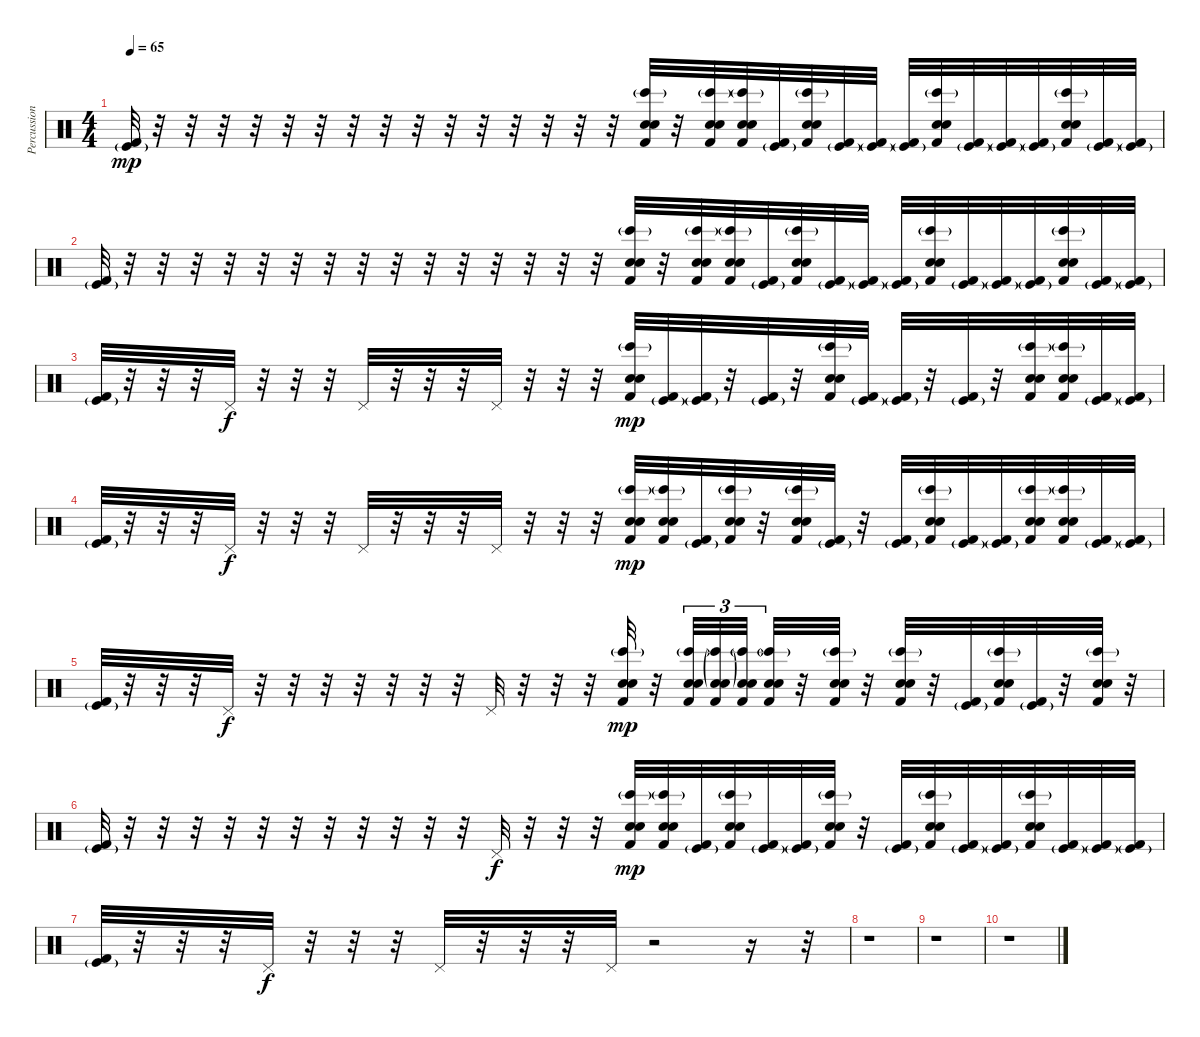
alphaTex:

\track ("Percussion 3" "Percussion") {instrument percussion}
\staff {score}
\articulation defaults
\ts (4 4)
\tempo 65
\clef neutral
\ks c
("Kick (hit)"{g} "Kick (hit) 2").32{dy mp} r.32 r.32 r.32 r.32 r.32 r.32 r.32 r.32 r.32 r.32 r.32 r.32 r.32 r.32 r.32 ("Bongo High (hit)"{g} "Snare (hit) 2" "Electric Snare (hit)" "Kick (hit) 2").32 r.32 ("Bongo High (hit)"{g} "Snare (hit) 2" "Electric Snare (hit)" "Kick (hit) 2").32 ("Bongo High (hit)"{g} "Snare (hit) 2" "Electric Snare (hit)" "Kick (hit) 2").32 ("Kick (hit)"{g} "Kick (hit) 2").32 ("Bongo High (hit)"{g} "Snare (hit) 2" "Electric Snare (hit)" "Kick (hit) 2").32 ("Kick (hit)"{g} "Kick (hit) 2").32 ("Kick (hit)"{g} "Kick (hit) 2").32 ("Kick (hit)"{g} "Kick (hit) 2").32 ("Bongo High (hit)"{g} "Snare (hit) 2" "Electric Snare (hit)" "Kick (hit) 2").32 ("Kick (hit)"{g} "Kick (hit) 2").32 ("Kick (hit)"{g} "Kick (hit) 2").32 ("Kick (hit)"{g} "Kick (hit) 2").32 ("Bongo High (hit)"{g} "Snare (hit) 2" "Electric Snare (hit)" "Kick (hit) 2").32 ("Kick (hit)"{g} "Kick (hit) 2").32 ("Kick (hit)"{g} "Kick (hit) 2").32 |
("Kick (hit)"{g} "Kick (hit) 2").32 r.32 r.32 r.32 r.32 r.32 r.32 r.32 r.32 r.32 r.32 r.32 r.32 r.32 r.32 r.32 ("Bongo High (hit)"{g} "Snare (hit) 2" "Electric Snare (hit)" "Kick (hit) 2").32 r.32 ("Bongo High (hit)"{g} "Snare (hit) 2" "Electric Snare (hit)" "Kick (hit) 2").32 ("Bongo High (hit)"{g} "Snare (hit) 2" "Electric Snare (hit)" "Kick (hit) 2").32 ("Kick (hit)"{g} "Kick (hit) 2").32 ("Bongo High (hit)"{g} "Snare (hit) 2" "Electric Snare (hit)" "Kick (hit) 2").32 ("Kick (hit)"{g} "Kick (hit) 2").32 ("Kick (hit)"{g} "Kick (hit) 2").32 ("Kick (hit)"{g} "Kick (hit) 2").32 ("Bongo High (hit)"{g} "Snare (hit) 2" "Electric Snare (hit)" "Kick (hit) 2").32 ("Kick (hit)"{g} "Kick (hit) 2").32 ("Kick (hit)"{g} "Kick (hit) 2").32 ("Kick (hit)"{g} "Kick (hit) 2").32 ("Bongo High (hit)"{g} "Snare (hit) 2" "Electric Snare (hit)" "Kick (hit) 2").32 ("Kick (hit)"{g} "Kick (hit) 2").32 ("Kick (hit)"{g} "Kick (hit) 2").32 |
\section ("" "")
("Kick (hit)"{g} "Kick (hit) 2").32 r.32 r.32 r.32 "Pedal Hi-Hat (hit)".32{dy f} r.32 r.32 r.32 "Pedal Hi-Hat (hit)".32 r.32 r.32 r.32 "Pedal Hi-Hat (hit)".32 r.32 r.32 r.32 ("Bongo High (hit)"{g} "Snare (hit) 2" "Electric Snare (hit)" "Kick (hit) 2").32{dy mp} ("Kick (hit)"{g} "Kick (hit) 2").32 ("Kick (hit)"{g} "Kick (hit) 2").32 r.32 ("Kick (hit)"{g} "Kick (hit) 2").32 r.32 ("Bongo High (hit)"{g} "Snare (hit) 2" "Electric Snare (hit)" "Kick (hit) 2").32 ("Kick (hit)"{g} "Kick (hit) 2").32 ("Kick (hit)"{g} "Kick (hit) 2").32 r.32 ("Kick (hit)"{g} "Kick (hit) 2").32 r.32 ("Bongo High (hit)"{g} "Snare (hit) 2" "Electric Snare (hit)" "Kick (hit) 2").32 ("Bongo High (hit)"{g} "Snare (hit) 2" "Electric Snare (hit)" "Kick (hit) 2").32 ("Kick (hit)"{g} "Kick (hit) 2").32 ("Kick (hit)"{g} "Kick (hit) 2").32 |
("Kick (hit)"{g} "Kick (hit) 2").32 r.32 r.32 r.32 "Pedal Hi-Hat (hit)".32{dy f} r.32 r.32 r.32 "Pedal Hi-Hat (hit)".32 r.32 r.32 r.32 "Pedal Hi-Hat (hit)".32 r.32 r.32 r.32 ("Bongo High (hit)"{g} "Snare (hit) 2" "Electric Snare (hit)" "Kick (hit) 2").32{dy mp} ("Bongo High (hit)"{g} "Snare (hit) 2" "Electric Snare (hit)" "Kick (hit) 2").32 ("Kick (hit)"{g} "Kick (hit) 2").32 ("Bongo High (hit)"{g} "Snare (hit) 2" "Electric Snare (hit)" "Kick (hit) 2").32 r.32 ("Bongo High (hit)"{g} "Snare (hit) 2" "Electric Snare (hit)" "Kick (hit) 2").32 ("Kick (hit)"{g} "Kick (hit) 2").32 r.32 ("Kick (hit)"{g} "Kick (hit) 2").32 ("Bongo High (hit)"{g} "Snare (hit) 2" "Electric Snare (hit)" "Kick (hit) 2").32 ("Kick (hit)"{g} "Kick (hit) 2").32 ("Kick (hit)"{g} "Kick (hit) 2").32 ("Bongo High (hit)"{g} "Snare (hit) 2" "Electric Snare (hit)" "Kick (hit) 2").32 ("Bongo High (hit)"{g} "Snare (hit) 2" "Electric Snare (hit)" "Kick (hit) 2").32 ("Kick (hit)"{g} "Kick (hit) 2").32 ("Kick (hit)"{g} "Kick (hit) 2").32 |
("Kick (hit)"{g} "Kick (hit) 2").32 r.32 r.32 r.32 "Pedal Hi-Hat (hit)".32{dy f} r.32 r.32 r.32 r.32 r.32 r.32 r.32 "Pedal Hi-Hat (hit)".32 r.32 r.32 r.32 ("Bongo High (hit)"{g} "Snare (hit) 2" "Electric Snare (hit)" "Kick (hit) 2").32{dy mp} r.32 ("Bongo High (hit)"{g} "Snare (hit) 2" "Electric Snare (hit)" "Kick (hit) 2").32{tu (3 2)} ("Bongo High (hit)"{g} "Snare (hit) 2"{g} "Electric Snare (hit)"{g} "Kick (hit) 2").32{tu (3 2)} ("Bongo High (hit)"{g} "Snare (hit) 2" "Electric Snare (hit)" "Kick (hit) 2").32{tu (3 2)} ("Bongo High (hit)"{g} "Snare (hit) 2" "Electric Snare (hit)" "Kick (hit) 2").32 r.32 ("Bongo High (hit)"{g} "Snare (hit) 2" "Electric Snare (hit)" "Kick (hit) 2").32 r.32 ("Bongo High (hit)"{g} "Snare (hit) 2" "Electric Snare (hit)" "Kick (hit) 2").32 r.32 ("Kick (hit)"{g} "Kick (hit) 2").32 ("Bongo High (hit)"{g} "Snare (hit) 2" "Electric Snare (hit)" "Kick (hit) 2").32 ("Kick (hit)"{g} "Kick (hit) 2").32 r.32 ("Bongo High (hit)"{g} "Snare (hit) 2" "Electric Snare (hit)" "Kick (hit) 2").32 r.32 |
("Kick (hit)"{g} "Kick (hit) 2").32 r.32 r.32 r.32 r.32 r.32 r.32 r.32 r.32 r.32 r.32 r.32 "Pedal Hi-Hat (hit)".32{dy f} r.32 r.32 r.32 ("Bongo High (hit)"{g} "Snare (hit) 2" "Electric Snare (hit)" "Kick (hit) 2").32{dy mp} ("Bongo High (hit)"{g} "Snare (hit) 2" "Electric Snare (hit)" "Kick (hit) 2").32 ("Kick (hit)"{g} "Kick (hit) 2").32 ("Bongo High (hit)"{g} "Snare (hit) 2" "Electric Snare (hit)" "Kick (hit) 2").32 ("Kick (hit)"{g} "Kick (hit) 2").32 ("Kick (hit)"{g} "Kick (hit) 2").32 ("Bongo High (hit)"{g} "Snare (hit) 2" "Electric Snare (hit)" "Kick (hit) 2").32 r.32 ("Kick (hit)"{g} "Kick (hit) 2").32 ("Bongo High (hit)"{g} "Snare (hit) 2" "Electric Snare (hit)" "Kick (hit) 2").32 ("Kick (hit)"{g} "Kick (hit) 2").32 ("Kick (hit)"{g} "Kick (hit) 2").32 ("Bongo High (hit)"{g} "Snare (hit) 2" "Electric Snare (hit)" "Kick (hit) 2").32 ("Kick (hit)"{g} "Kick (hit) 2").32 ("Kick (hit)"{g} "Kick (hit) 2").32 ("Kick (hit)"{g} "Kick (hit) 2").32 |
\section ("" "")
("Kick (hit)"{g} "Kick (hit) 2").32 r.32 r.32 r.32 "Pedal Hi-Hat (hit)".32{dy f} r.32 r.32 r.32 "Pedal Hi-Hat (hit)".32 r.32 r.32 r.32 "Pedal Hi-Hat (hit)".32 r.2 r.16 r.32 |
r.1 |
r.1 |
r.1
